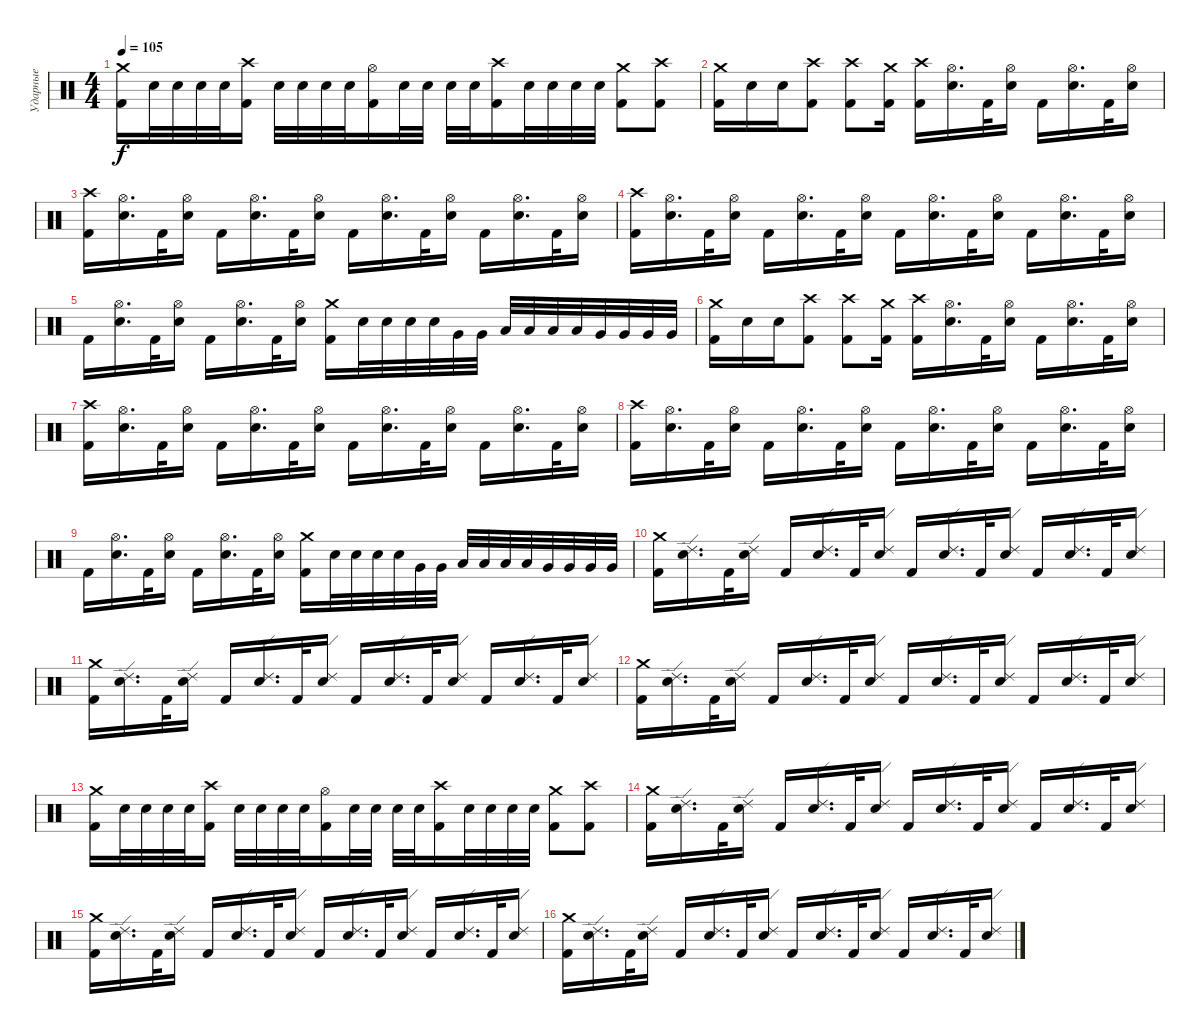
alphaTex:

\track ("Ударные" "Ударные") {instrument percussion}
\staff {score}
\articulation defaults
\ts (4 4)
\tempo 105
\clef neutral
\ks c
("Crash medium (hit)" "Kick (hit) 2").16{dy f} "Electric Snare (hit)".32 "Electric Snare (hit)".32 "Electric Snare (hit)".32 "Electric Snare (hit)".32 ("Crash high (hit)" "Kick (hit) 2").16 "Electric Snare (hit)".32 "Electric Snare (hit)".32 "Electric Snare (hit)".32 "Electric Snare (hit)".32 ("Hi-Hat (open)" "Kick (hit) 2").16 "Electric Snare (hit)".32 "Electric Snare (hit)".32 "Electric Snare (hit)".32 "Electric Snare (hit)".32 ("Crash high (hit)" "Kick (hit) 2").16 "Electric Snare (hit)".32 "Electric Snare (hit)".32 "Electric Snare (hit)".32 "Electric Snare (hit)".32 ("Crash medium (hit)" "Kick (hit) 2").8 ("Crash high (hit)" "Kick (hit) 2").8 |
("Crash medium (hit)" "Kick (hit) 2").16 "Electric Snare (hit)".16 "Electric Snare (hit)".16 ("Crash high (hit)" "Kick (hit) 2").8 ("Crash high (hit)" "Kick (hit) 2").8 ("Crash medium (hit)" "Kick (hit) 2").16 ("Crash high (hit)" "Kick (hit) 2").16 ("Hi-Hat (open)" "Electric Snare (hit)").16{d} "Kick (hit) 2".32 ("Hi-Hat (open)" "Electric Snare (hit)").16 "Kick (hit) 2".16 ("Hi-Hat (open)" "Electric Snare (hit)").16{d} "Kick (hit) 2".32 ("Hi-Hat (open)" "Electric Snare (hit)").16 |
("Crash high (hit)" "Kick (hit) 2").16 ("Hi-Hat (open)" "Electric Snare (hit)").16{d} "Kick (hit) 2".32 ("Hi-Hat (open)" "Electric Snare (hit)").16 "Kick (hit) 2".16 ("Hi-Hat (open)" "Electric Snare (hit)").16{d} "Kick (hit) 2".32 ("Hi-Hat (open)" "Electric Snare (hit)").16 "Kick (hit) 2".16 ("Hi-Hat (open)" "Electric Snare (hit)").16{d} "Kick (hit) 2".32 ("Hi-Hat (open)" "Electric Snare (hit)").16 "Kick (hit) 2".16 ("Hi-Hat (open)" "Electric Snare (hit)").16{d} "Kick (hit) 2".32 ("Hi-Hat (open)" "Electric Snare (hit)").16 |
("Crash high (hit)" "Kick (hit) 2").16 ("Hi-Hat (open)" "Electric Snare (hit)").16{d} "Kick (hit) 2".32 ("Hi-Hat (open)" "Electric Snare (hit)").16 "Kick (hit) 2".16 ("Hi-Hat (open)" "Electric Snare (hit)").16{d} "Kick (hit) 2".32 ("Hi-Hat (open)" "Electric Snare (hit)").16 "Kick (hit) 2".16 ("Hi-Hat (open)" "Electric Snare (hit)").16{d} "Kick (hit) 2".32 ("Hi-Hat (open)" "Electric Snare (hit)").16 "Kick (hit) 2".16 ("Hi-Hat (open)" "Electric Snare (hit)").16{d} "Kick (hit) 2".32 ("Hi-Hat (open)" "Electric Snare (hit)").16 |
"Kick (hit) 2".16 ("Hi-Hat (open)" "Electric Snare (hit)").16{d} "Kick (hit) 2".32 ("Hi-Hat (open)" "Electric Snare (hit)").16 "Kick (hit) 2".16 ("Hi-Hat (open)" "Electric Snare (hit)").16{d} "Kick (hit) 2".32 ("Hi-Hat (open)" "Electric Snare (hit)").16 ("Crash medium (hit)" "Kick (hit) 2").16 "Electric Snare (hit)".32 "Electric Snare (hit)".32 "Electric Snare (hit)".32 "Electric Snare (hit)".32 "Very Low Tom (hit)".32 "Very Low Tom (hit)".32 "Low Floor Tom (hit)".32 "Low Floor Tom (hit)".32 "Low Floor Tom (hit)".32 "Low Floor Tom (hit)".32 "Very Low Tom (hit)".32 "Very Low Tom (hit)".32 "Very Low Tom (hit)".32 "Very Low Tom (hit)".32 |
("Crash medium (hit)" "Kick (hit) 2").16 "Electric Snare (hit)".16 "Electric Snare (hit)".16 ("Crash high (hit)" "Kick (hit) 2").8 ("Crash high (hit)" "Kick (hit) 2").8 ("Crash medium (hit)" "Kick (hit) 2").16 ("Crash high (hit)" "Kick (hit) 2").16 ("Hi-Hat (open)" "Electric Snare (hit)").16{d} "Kick (hit) 2".32 ("Hi-Hat (open)" "Electric Snare (hit)").16 "Kick (hit) 2".16 ("Hi-Hat (open)" "Electric Snare (hit)").16{d} "Kick (hit) 2".32 ("Hi-Hat (open)" "Electric Snare (hit)").16 |
("Crash high (hit)" "Kick (hit) 2").16 ("Hi-Hat (open)" "Electric Snare (hit)").16{d} "Kick (hit) 2".32 ("Hi-Hat (open)" "Electric Snare (hit)").16 "Kick (hit) 2".16 ("Hi-Hat (open)" "Electric Snare (hit)").16{d} "Kick (hit) 2".32 ("Hi-Hat (open)" "Electric Snare (hit)").16 "Kick (hit) 2".16 ("Hi-Hat (open)" "Electric Snare (hit)").16{d} "Kick (hit) 2".32 ("Hi-Hat (open)" "Electric Snare (hit)").16 "Kick (hit) 2".16 ("Hi-Hat (open)" "Electric Snare (hit)").16{d} "Kick (hit) 2".32 ("Hi-Hat (open)" "Electric Snare (hit)").16 |
("Crash high (hit)" "Kick (hit) 2").16 ("Hi-Hat (open)" "Electric Snare (hit)").16{d} "Kick (hit) 2".32 ("Hi-Hat (open)" "Electric Snare (hit)").16 "Kick (hit) 2".16 ("Hi-Hat (open)" "Electric Snare (hit)").16{d} "Kick (hit) 2".32 ("Hi-Hat (open)" "Electric Snare (hit)").16 "Kick (hit) 2".16 ("Hi-Hat (open)" "Electric Snare (hit)").16{d} "Kick (hit) 2".32 ("Hi-Hat (open)" "Electric Snare (hit)").16 "Kick (hit) 2".16 ("Hi-Hat (open)" "Electric Snare (hit)").16{d} "Kick (hit) 2".32 ("Hi-Hat (open)" "Electric Snare (hit)").16 |
"Kick (hit) 2".16 ("Hi-Hat (open)" "Electric Snare (hit)").16{d} "Kick (hit) 2".32 ("Hi-Hat (open)" "Electric Snare (hit)").16 "Kick (hit) 2".16 ("Hi-Hat (open)" "Electric Snare (hit)").16{d} "Kick (hit) 2".32 ("Hi-Hat (open)" "Electric Snare (hit)").16 ("Crash medium (hit)" "Kick (hit) 2").16 "Electric Snare (hit)".32 "Electric Snare (hit)".32 "Electric Snare (hit)".32 "Electric Snare (hit)".32 "Very Low Tom (hit)".32 "Very Low Tom (hit)".32 "Low Floor Tom (hit)".32 "Low Floor Tom (hit)".32 "Low Floor Tom (hit)".32 "Low Floor Tom (hit)".32 "Very Low Tom (hit)".32 "Very Low Tom (hit)".32 "Very Low Tom (hit)".32 "Very Low Tom (hit)".32 |
("Crash medium (hit)" "Kick (hit) 2").16 ("Ride (edge) 2" "Electric Snare (hit)").16{d} "Kick (hit) 2".32 ("Ride (edge) 2" "Electric Snare (hit)").16 "Kick (hit) 2".16 ("Ride (edge) 2" "Electric Snare (hit)").16{d} "Kick (hit) 2".32 ("Ride (edge) 2" "Electric Snare (hit)").16 "Kick (hit) 2".16 ("Ride (edge) 2" "Electric Snare (hit)").16{d} "Kick (hit) 2".32 ("Ride (edge) 2" "Electric Snare (hit)").16 "Kick (hit) 2".16 ("Ride (edge) 2" "Electric Snare (hit)").16{d} "Kick (hit) 2".32 ("Ride (edge) 2" "Electric Snare (hit)").16 |
("Crash medium (hit)" "Kick (hit) 2").16 ("Ride (edge) 2" "Electric Snare (hit)").16{d} "Kick (hit) 2".32 ("Ride (edge) 2" "Electric Snare (hit)").16 "Kick (hit) 2".16 ("Ride (edge) 2" "Electric Snare (hit)").16{d} "Kick (hit) 2".32 ("Ride (edge) 2" "Electric Snare (hit)").16 "Kick (hit) 2".16 ("Ride (edge) 2" "Electric Snare (hit)").16{d} "Kick (hit) 2".32 ("Ride (edge) 2" "Electric Snare (hit)").16 "Kick (hit) 2".16 ("Ride (edge) 2" "Electric Snare (hit)").16{d} "Kick (hit) 2".32 ("Ride (edge) 2" "Electric Snare (hit)").16 |
("Crash medium (hit)" "Kick (hit) 2").16 ("Ride (edge) 2" "Electric Snare (hit)").16{d} "Kick (hit) 2".32 ("Ride (edge) 2" "Electric Snare (hit)").16 "Kick (hit) 2".16 ("Ride (edge) 2" "Electric Snare (hit)").16{d} "Kick (hit) 2".32 ("Ride (edge) 2" "Electric Snare (hit)").16 "Kick (hit) 2".16 ("Ride (edge) 2" "Electric Snare (hit)").16{d} "Kick (hit) 2".32 ("Ride (edge) 2" "Electric Snare (hit)").16 "Kick (hit) 2".16 ("Ride (edge) 2" "Electric Snare (hit)").16{d} "Kick (hit) 2".32 ("Ride (edge) 2" "Electric Snare (hit)").16 |
("Crash medium (hit)" "Kick (hit) 2").16 "Electric Snare (hit)".32 "Electric Snare (hit)".32 "Electric Snare (hit)".32 "Electric Snare (hit)".32 ("Crash high (hit)" "Kick (hit) 2").16 "Electric Snare (hit)".32 "Electric Snare (hit)".32 "Electric Snare (hit)".32 "Electric Snare (hit)".32 ("Hi-Hat (open)" "Kick (hit) 2").16 "Electric Snare (hit)".32 "Electric Snare (hit)".32 "Electric Snare (hit)".32 "Electric Snare (hit)".32 ("Crash high (hit)" "Kick (hit) 2").16 "Electric Snare (hit)".32 "Electric Snare (hit)".32 "Electric Snare (hit)".32 "Electric Snare (hit)".32 ("Crash medium (hit)" "Kick (hit) 2").8 ("Crash high (hit)" "Kick (hit) 2").8 |
("Crash medium (hit)" "Kick (hit) 2").16 ("Ride (edge) 2" "Electric Snare (hit)").16{d} "Kick (hit) 2".32 ("Ride (edge) 2" "Electric Snare (hit)").16 "Kick (hit) 2".16 ("Ride (edge) 2" "Electric Snare (hit)").16{d} "Kick (hit) 2".32 ("Ride (edge) 2" "Electric Snare (hit)").16 "Kick (hit) 2".16 ("Ride (edge) 2" "Electric Snare (hit)").16{d} "Kick (hit) 2".32 ("Ride (edge) 2" "Electric Snare (hit)").16 "Kick (hit) 2".16 ("Ride (edge) 2" "Electric Snare (hit)").16{d} "Kick (hit) 2".32 ("Ride (edge) 2" "Electric Snare (hit)").16 |
("Crash medium (hit)" "Kick (hit) 2").16 ("Ride (edge) 2" "Electric Snare (hit)").16{d} "Kick (hit) 2".32 ("Ride (edge) 2" "Electric Snare (hit)").16 "Kick (hit) 2".16 ("Ride (edge) 2" "Electric Snare (hit)").16{d} "Kick (hit) 2".32 ("Ride (edge) 2" "Electric Snare (hit)").16 "Kick (hit) 2".16 ("Ride (edge) 2" "Electric Snare (hit)").16{d} "Kick (hit) 2".32 ("Ride (edge) 2" "Electric Snare (hit)").16 "Kick (hit) 2".16 ("Ride (edge) 2" "Electric Snare (hit)").16{d} "Kick (hit) 2".32 ("Ride (edge) 2" "Electric Snare (hit)").16 |
("Crash medium (hit)" "Kick (hit) 2").16 ("Ride (edge) 2" "Electric Snare (hit)").16{d} "Kick (hit) 2".32 ("Ride (edge) 2" "Electric Snare (hit)").16 "Kick (hit) 2".16 ("Ride (edge) 2" "Electric Snare (hit)").16{d} "Kick (hit) 2".32 ("Ride (edge) 2" "Electric Snare (hit)").16 "Kick (hit) 2".16 ("Ride (edge) 2" "Electric Snare (hit)").16{d} "Kick (hit) 2".32 ("Ride (edge) 2" "Electric Snare (hit)").16 "Kick (hit) 2".16 ("Ride (edge) 2" "Electric Snare (hit)").16{d} "Kick (hit) 2".32 ("Ride (edge) 2" "Electric Snare (hit)").16
